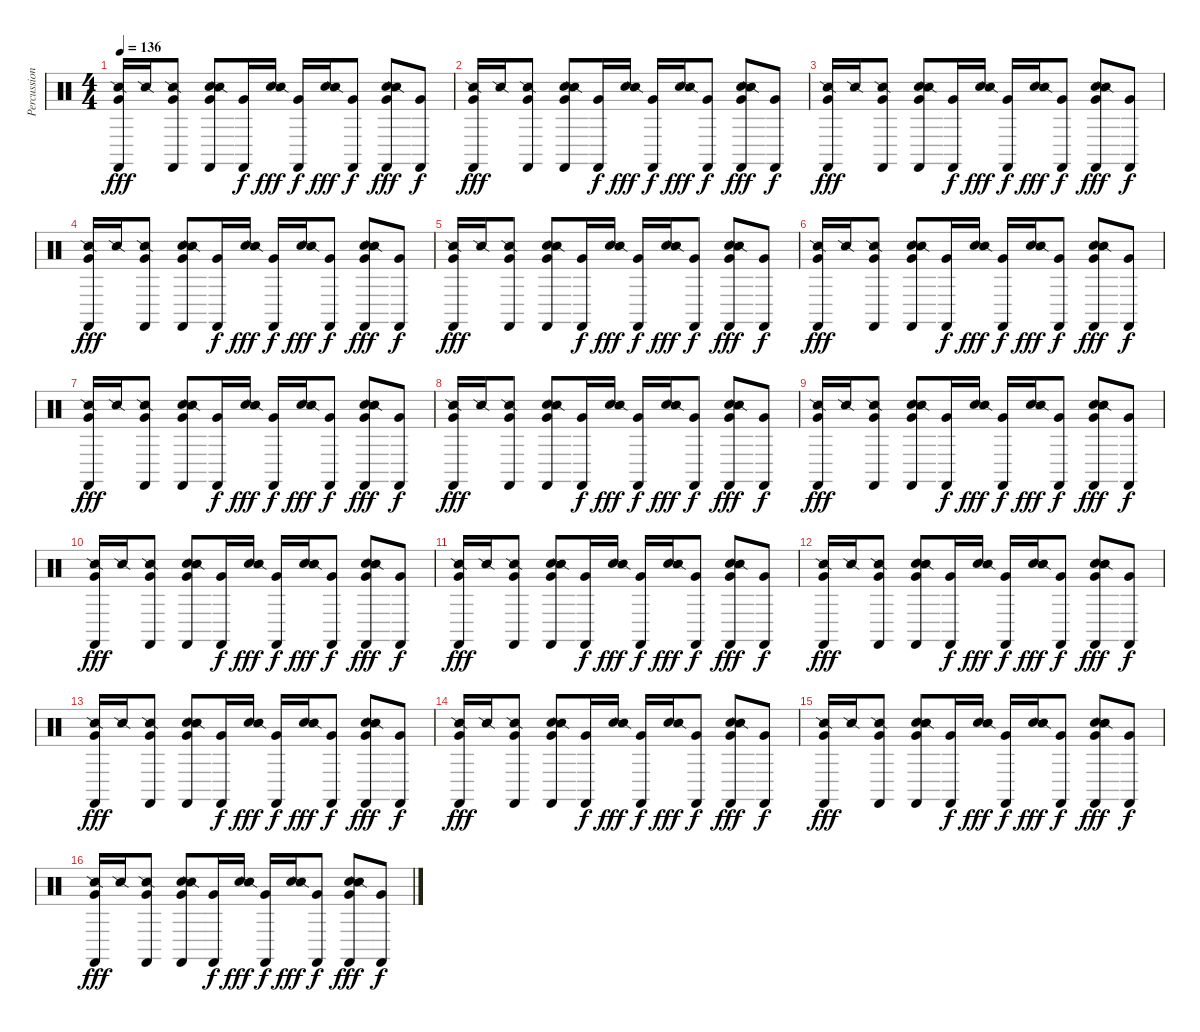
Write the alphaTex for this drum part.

\track ("Percussions" "Percussion") {instrument percussion}
\staff {score}
\articulation defaults
\ts (4 4)
\tempo 136
\clef neutral
\ks c
("Very Low Tom (hit)" "Castanets (hit)" "Snare (side stick) 2").16{dy fff} "Snare (side stick) 2".16 ("Very Low Tom (hit)" "Castanets (hit)" "Snare (side stick) 2").8 ("Very Low Tom (hit)" "Snare (hit) 2" "Castanets (hit)" "Snare (side stick) 2").8 ("Very Low Tom (hit)" "Castanets (hit)").16{dy f} ("Snare (hit) 2" "Snare (side stick) 2").16{dy fff} ("Very Low Tom (hit)" "Castanets (hit)").16{dy f} ("Snare (hit) 2" "Snare (side stick) 2").16{dy fff} ("Very Low Tom (hit)" "Castanets (hit)").8{dy f} ("Very Low Tom (hit)" "Snare (hit) 2" "Castanets (hit)" "Snare (side stick) 2").8{dy fff} ("Very Low Tom (hit)" "Castanets (hit)").8{dy f} |
("Very Low Tom (hit)" "Castanets (hit)" "Snare (side stick) 2").16{dy fff} "Snare (side stick) 2".16 ("Very Low Tom (hit)" "Castanets (hit)" "Snare (side stick) 2").8 ("Very Low Tom (hit)" "Snare (hit) 2" "Castanets (hit)" "Snare (side stick) 2").8 ("Very Low Tom (hit)" "Castanets (hit)").16{dy f} ("Snare (hit) 2" "Snare (side stick) 2").16{dy fff} ("Very Low Tom (hit)" "Castanets (hit)").16{dy f} ("Snare (hit) 2" "Snare (side stick) 2").16{dy fff} ("Very Low Tom (hit)" "Castanets (hit)").8{dy f} ("Very Low Tom (hit)" "Snare (hit) 2" "Castanets (hit)" "Snare (side stick) 2").8{dy fff} ("Very Low Tom (hit)" "Castanets (hit)").8{dy f} |
("Very Low Tom (hit)" "Castanets (hit)" "Snare (side stick) 2").16{dy fff} "Snare (side stick) 2".16 ("Very Low Tom (hit)" "Castanets (hit)" "Snare (side stick) 2").8 ("Very Low Tom (hit)" "Snare (hit) 2" "Castanets (hit)" "Snare (side stick) 2").8 ("Very Low Tom (hit)" "Castanets (hit)").16{dy f} ("Snare (hit) 2" "Snare (side stick) 2").16{dy fff} ("Very Low Tom (hit)" "Castanets (hit)").16{dy f} ("Snare (hit) 2" "Snare (side stick) 2").16{dy fff} ("Very Low Tom (hit)" "Castanets (hit)").8{dy f} ("Very Low Tom (hit)" "Snare (hit) 2" "Castanets (hit)" "Snare (side stick) 2").8{dy fff} ("Very Low Tom (hit)" "Castanets (hit)").8{dy f} |
("Very Low Tom (hit)" "Castanets (hit)" "Snare (side stick) 2").16{dy fff} "Snare (side stick) 2".16 ("Very Low Tom (hit)" "Castanets (hit)" "Snare (side stick) 2").8 ("Very Low Tom (hit)" "Snare (hit) 2" "Castanets (hit)" "Snare (side stick) 2").8 ("Very Low Tom (hit)" "Castanets (hit)").16{dy f} ("Snare (hit) 2" "Snare (side stick) 2").16{dy fff} ("Very Low Tom (hit)" "Castanets (hit)").16{dy f} ("Snare (hit) 2" "Snare (side stick) 2").16{dy fff} ("Very Low Tom (hit)" "Castanets (hit)").8{dy f} ("Very Low Tom (hit)" "Snare (hit) 2" "Castanets (hit)" "Snare (side stick) 2").8{dy fff} ("Very Low Tom (hit)" "Castanets (hit)").8{dy f} |
("Very Low Tom (hit)" "Castanets (hit)" "Snare (side stick) 2").16{dy fff} "Snare (side stick) 2".16 ("Very Low Tom (hit)" "Castanets (hit)" "Snare (side stick) 2").8 ("Very Low Tom (hit)" "Snare (hit) 2" "Castanets (hit)" "Snare (side stick) 2").8 ("Very Low Tom (hit)" "Castanets (hit)").16{dy f} ("Snare (hit) 2" "Snare (side stick) 2").16{dy fff} ("Very Low Tom (hit)" "Castanets (hit)").16{dy f} ("Snare (hit) 2" "Snare (side stick) 2").16{dy fff} ("Very Low Tom (hit)" "Castanets (hit)").8{dy f} ("Very Low Tom (hit)" "Snare (hit) 2" "Castanets (hit)" "Snare (side stick) 2").8{dy fff} ("Very Low Tom (hit)" "Castanets (hit)").8{dy f} |
("Very Low Tom (hit)" "Castanets (hit)" "Snare (side stick) 2").16{dy fff} "Snare (side stick) 2".16 ("Very Low Tom (hit)" "Castanets (hit)" "Snare (side stick) 2").8 ("Very Low Tom (hit)" "Snare (hit) 2" "Castanets (hit)" "Snare (side stick) 2").8 ("Very Low Tom (hit)" "Castanets (hit)").16{dy f} ("Snare (hit) 2" "Snare (side stick) 2").16{dy fff} ("Very Low Tom (hit)" "Castanets (hit)").16{dy f} ("Snare (hit) 2" "Snare (side stick) 2").16{dy fff} ("Very Low Tom (hit)" "Castanets (hit)").8{dy f} ("Very Low Tom (hit)" "Snare (hit) 2" "Castanets (hit)" "Snare (side stick) 2").8{dy fff} ("Very Low Tom (hit)" "Castanets (hit)").8{dy f} |
("Very Low Tom (hit)" "Castanets (hit)" "Snare (side stick) 2").16{dy fff} "Snare (side stick) 2".16 ("Very Low Tom (hit)" "Castanets (hit)" "Snare (side stick) 2").8 ("Very Low Tom (hit)" "Snare (hit) 2" "Castanets (hit)" "Snare (side stick) 2").8 ("Very Low Tom (hit)" "Castanets (hit)").16{dy f} ("Snare (hit) 2" "Snare (side stick) 2").16{dy fff} ("Very Low Tom (hit)" "Castanets (hit)").16{dy f} ("Snare (hit) 2" "Snare (side stick) 2").16{dy fff} ("Very Low Tom (hit)" "Castanets (hit)").8{dy f} ("Very Low Tom (hit)" "Snare (hit) 2" "Castanets (hit)" "Snare (side stick) 2").8{dy fff} ("Very Low Tom (hit)" "Castanets (hit)").8{dy f} |
("Very Low Tom (hit)" "Castanets (hit)" "Snare (side stick) 2").16{dy fff} "Snare (side stick) 2".16 ("Very Low Tom (hit)" "Castanets (hit)" "Snare (side stick) 2").8 ("Very Low Tom (hit)" "Snare (hit) 2" "Castanets (hit)" "Snare (side stick) 2").8 ("Very Low Tom (hit)" "Castanets (hit)").16{dy f} ("Snare (hit) 2" "Snare (side stick) 2").16{dy fff} ("Very Low Tom (hit)" "Castanets (hit)").16{dy f} ("Snare (hit) 2" "Snare (side stick) 2").16{dy fff} ("Very Low Tom (hit)" "Castanets (hit)").8{dy f} ("Very Low Tom (hit)" "Snare (hit) 2" "Castanets (hit)" "Snare (side stick) 2").8{dy fff} ("Very Low Tom (hit)" "Castanets (hit)").8{dy f} |
("Very Low Tom (hit)" "Castanets (hit)" "Snare (side stick) 2").16{dy fff} "Snare (side stick) 2".16 ("Very Low Tom (hit)" "Castanets (hit)" "Snare (side stick) 2").8 ("Very Low Tom (hit)" "Snare (hit) 2" "Castanets (hit)" "Snare (side stick) 2").8 ("Very Low Tom (hit)" "Castanets (hit)").16{dy f} ("Snare (hit) 2" "Snare (side stick) 2").16{dy fff} ("Very Low Tom (hit)" "Castanets (hit)").16{dy f} ("Snare (hit) 2" "Snare (side stick) 2").16{dy fff} ("Very Low Tom (hit)" "Castanets (hit)").8{dy f} ("Very Low Tom (hit)" "Snare (hit) 2" "Castanets (hit)" "Snare (side stick) 2").8{dy fff} ("Very Low Tom (hit)" "Castanets (hit)").8{dy f} |
("Very Low Tom (hit)" "Castanets (hit)" "Snare (side stick) 2").16{dy fff} "Snare (side stick) 2".16 ("Very Low Tom (hit)" "Castanets (hit)" "Snare (side stick) 2").8 ("Very Low Tom (hit)" "Snare (hit) 2" "Castanets (hit)" "Snare (side stick) 2").8 ("Very Low Tom (hit)" "Castanets (hit)").16{dy f} ("Snare (hit) 2" "Snare (side stick) 2").16{dy fff} ("Very Low Tom (hit)" "Castanets (hit)").16{dy f} ("Snare (hit) 2" "Snare (side stick) 2").16{dy fff} ("Very Low Tom (hit)" "Castanets (hit)").8{dy f} ("Very Low Tom (hit)" "Snare (hit) 2" "Castanets (hit)" "Snare (side stick) 2").8{dy fff} ("Very Low Tom (hit)" "Castanets (hit)").8{dy f} |
("Very Low Tom (hit)" "Castanets (hit)" "Snare (side stick) 2").16{dy fff} "Snare (side stick) 2".16 ("Very Low Tom (hit)" "Castanets (hit)" "Snare (side stick) 2").8 ("Very Low Tom (hit)" "Snare (hit) 2" "Castanets (hit)" "Snare (side stick) 2").8 ("Very Low Tom (hit)" "Castanets (hit)").16{dy f} ("Snare (hit) 2" "Snare (side stick) 2").16{dy fff} ("Very Low Tom (hit)" "Castanets (hit)").16{dy f} ("Snare (hit) 2" "Snare (side stick) 2").16{dy fff} ("Very Low Tom (hit)" "Castanets (hit)").8{dy f} ("Very Low Tom (hit)" "Snare (hit) 2" "Castanets (hit)" "Snare (side stick) 2").8{dy fff} ("Very Low Tom (hit)" "Castanets (hit)").8{dy f} |
("Very Low Tom (hit)" "Castanets (hit)" "Snare (side stick) 2").16{dy fff} "Snare (side stick) 2".16 ("Very Low Tom (hit)" "Castanets (hit)" "Snare (side stick) 2").8 ("Very Low Tom (hit)" "Snare (hit) 2" "Castanets (hit)" "Snare (side stick) 2").8 ("Very Low Tom (hit)" "Castanets (hit)").16{dy f} ("Snare (hit) 2" "Snare (side stick) 2").16{dy fff} ("Very Low Tom (hit)" "Castanets (hit)").16{dy f} ("Snare (hit) 2" "Snare (side stick) 2").16{dy fff} ("Very Low Tom (hit)" "Castanets (hit)").8{dy f} ("Very Low Tom (hit)" "Snare (hit) 2" "Castanets (hit)" "Snare (side stick) 2").8{dy fff} ("Very Low Tom (hit)" "Castanets (hit)").8{dy f} |
("Very Low Tom (hit)" "Castanets (hit)" "Snare (side stick) 2").16{dy fff} "Snare (side stick) 2".16 ("Very Low Tom (hit)" "Castanets (hit)" "Snare (side stick) 2").8 ("Very Low Tom (hit)" "Snare (hit) 2" "Castanets (hit)" "Snare (side stick) 2").8 ("Very Low Tom (hit)" "Castanets (hit)").16{dy f} ("Snare (hit) 2" "Snare (side stick) 2").16{dy fff} ("Very Low Tom (hit)" "Castanets (hit)").16{dy f} ("Snare (hit) 2" "Snare (side stick) 2").16{dy fff} ("Very Low Tom (hit)" "Castanets (hit)").8{dy f} ("Very Low Tom (hit)" "Snare (hit) 2" "Castanets (hit)" "Snare (side stick) 2").8{dy fff} ("Very Low Tom (hit)" "Castanets (hit)").8{dy f} |
("Very Low Tom (hit)" "Castanets (hit)" "Snare (side stick) 2").16{dy fff} "Snare (side stick) 2".16 ("Very Low Tom (hit)" "Castanets (hit)" "Snare (side stick) 2").8 ("Very Low Tom (hit)" "Snare (hit) 2" "Castanets (hit)" "Snare (side stick) 2").8 ("Very Low Tom (hit)" "Castanets (hit)").16{dy f} ("Snare (hit) 2" "Snare (side stick) 2").16{dy fff} ("Very Low Tom (hit)" "Castanets (hit)").16{dy f} ("Snare (hit) 2" "Snare (side stick) 2").16{dy fff} ("Very Low Tom (hit)" "Castanets (hit)").8{dy f} ("Very Low Tom (hit)" "Snare (hit) 2" "Castanets (hit)" "Snare (side stick) 2").8{dy fff} ("Very Low Tom (hit)" "Castanets (hit)").8{dy f} |
("Very Low Tom (hit)" "Castanets (hit)" "Snare (side stick) 2").16{dy fff} "Snare (side stick) 2".16 ("Very Low Tom (hit)" "Castanets (hit)" "Snare (side stick) 2").8 ("Very Low Tom (hit)" "Snare (hit) 2" "Castanets (hit)" "Snare (side stick) 2").8 ("Very Low Tom (hit)" "Castanets (hit)").16{dy f} ("Snare (hit) 2" "Snare (side stick) 2").16{dy fff} ("Very Low Tom (hit)" "Castanets (hit)").16{dy f} ("Snare (hit) 2" "Snare (side stick) 2").16{dy fff} ("Very Low Tom (hit)" "Castanets (hit)").8{dy f} ("Very Low Tom (hit)" "Snare (hit) 2" "Castanets (hit)" "Snare (side stick) 2").8{dy fff} ("Very Low Tom (hit)" "Castanets (hit)").8{dy f} |
("Very Low Tom (hit)" "Castanets (hit)" "Snare (side stick) 2").16{dy fff} "Snare (side stick) 2".16 ("Very Low Tom (hit)" "Castanets (hit)" "Snare (side stick) 2").8 ("Very Low Tom (hit)" "Snare (hit) 2" "Castanets (hit)" "Snare (side stick) 2").8 ("Very Low Tom (hit)" "Castanets (hit)").16{dy f} ("Snare (hit) 2" "Snare (side stick) 2").16{dy fff} ("Very Low Tom (hit)" "Castanets (hit)").16{dy f} ("Snare (hit) 2" "Snare (side stick) 2").16{dy fff} ("Very Low Tom (hit)" "Castanets (hit)").8{dy f} ("Very Low Tom (hit)" "Snare (hit) 2" "Castanets (hit)" "Snare (side stick) 2").8{dy fff} ("Very Low Tom (hit)" "Castanets (hit)").8{dy f}
